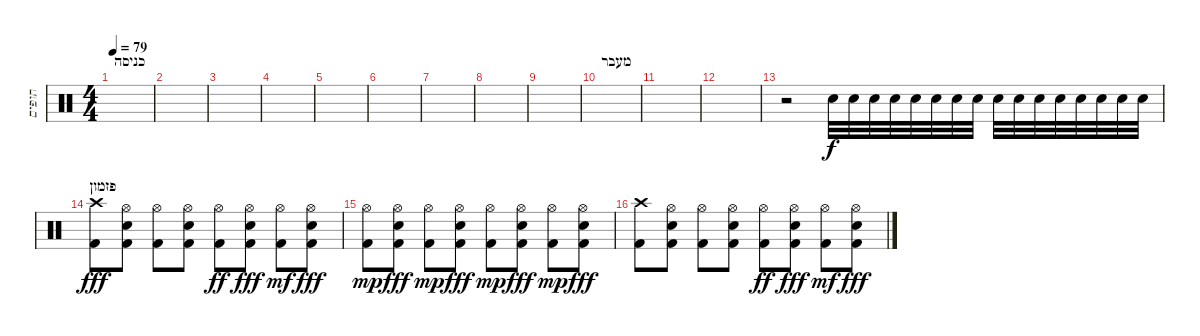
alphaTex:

\track ("תופים" "תופים") {instrument percussion}
\staff {score}
\articulation defaults
\ts (4 4)
\section ("" "כניסה")
\tempo 79
\clef neutral
\ks c
|
|
|
|
|
|
|
|
|
\section ("" "מעבר")
|
|
|
r.2 "Snare (hit) 2".32 "Snare (hit) 2".32 "Snare (hit) 2".32 "Snare (hit) 2".32 "Snare (hit) 2".32 "Snare (hit) 2".32 "Snare (hit) 2".32 "Snare (hit) 2".32 "Snare (hit) 2".32 "Snare (hit) 2".32 "Snare (hit) 2".32 "Snare (hit) 2".32 "Snare (hit) 2".32 "Snare (hit) 2".32 "Snare (hit) 2".32 "Snare (hit) 2".32 |
\section ("" "פזמון")
("Crash high (hit)" "Kick (hit) 2").8{dy fff} ("Hi-Hat (open)" "Snare (hit) 2" "Kick (hit) 2").8 ("Hi-Hat (open)" "Kick (hit) 2").8 ("Hi-Hat (open)" "Snare (hit) 2" "Kick (hit) 2").8 ("Hi-Hat (open)" "Kick (hit) 2").8{dy ff} ("Hi-Hat (open)" "Snare (hit) 2" "Kick (hit) 2").8{dy fff} ("Hi-Hat (open)" "Kick (hit) 2").8{dy mf} ("Hi-Hat (open)" "Snare (hit) 2" "Kick (hit) 2").8{dy fff} |
("Hi-Hat (open)" "Kick (hit) 2").8{dy mp} ("Hi-Hat (open)" "Snare (hit) 2" "Kick (hit) 2").8{dy fff} ("Hi-Hat (open)" "Kick (hit) 2").8{dy mp} ("Hi-Hat (open)" "Snare (hit) 2" "Kick (hit) 2").8{dy fff} ("Hi-Hat (open)" "Kick (hit) 2").8{dy mp} ("Hi-Hat (open)" "Snare (hit) 2" "Kick (hit) 2").8{dy fff} ("Hi-Hat (open)" "Kick (hit) 2").8{dy mp} ("Hi-Hat (open)" "Snare (hit) 2" "Kick (hit) 2").8{dy fff} |
("Crash high (hit)" "Kick (hit) 2").8 ("Hi-Hat (open)" "Snare (hit) 2" "Kick (hit) 2").8 ("Hi-Hat (open)" "Kick (hit) 2").8 ("Hi-Hat (open)" "Snare (hit) 2" "Kick (hit) 2").8 ("Hi-Hat (open)" "Kick (hit) 2").8{dy ff} ("Hi-Hat (open)" "Snare (hit) 2" "Kick (hit) 2").8{dy fff} ("Hi-Hat (open)" "Kick (hit) 2").8{dy mf} ("Hi-Hat (open)" "Snare (hit) 2" "Kick (hit) 2").8{dy fff}
